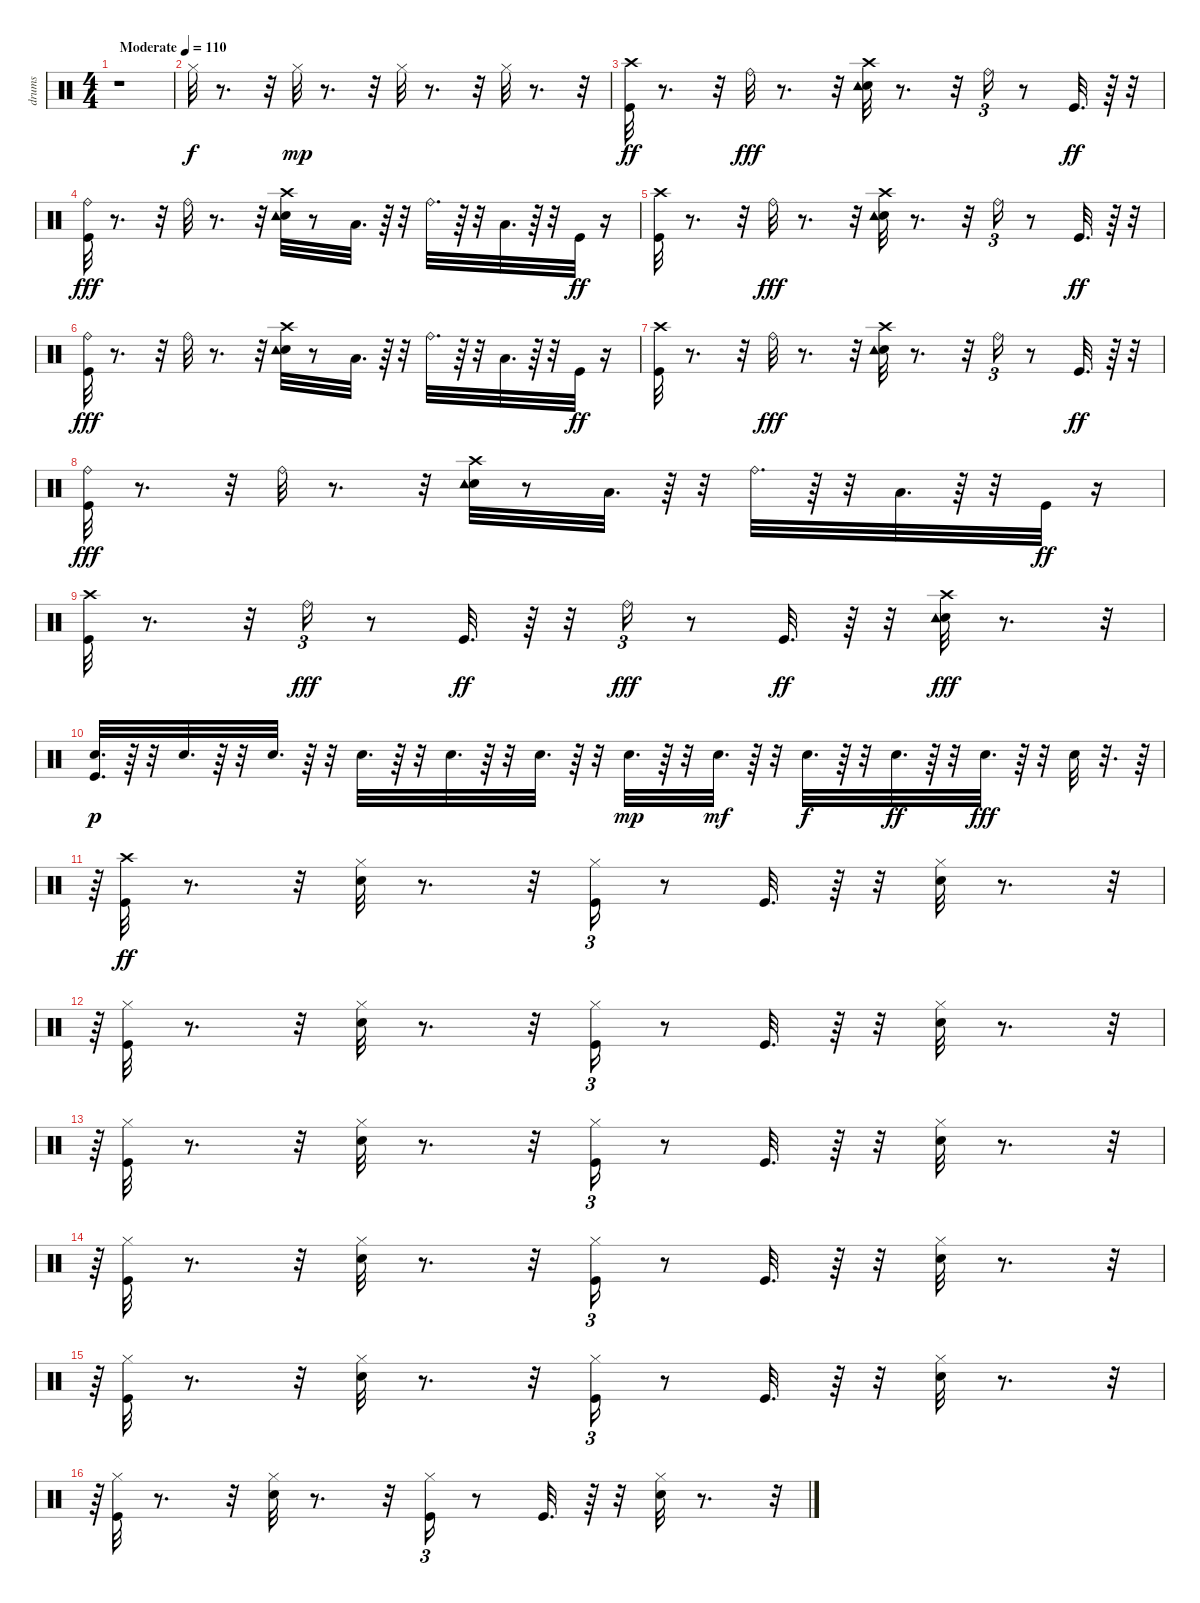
\track ("drums    " "drums    ") {instrument percussion}
\staff {score}
\articulation defaults
\ts (4 4)
\tempo (110 "Moderate")
\clef neutral
\ks c
r.1{dy f} |
"Hi-Hat (closed)".32 r.8{d} r.32 "Hi-Hat (closed)".32{dy mp} r.8{d} r.32 "Hi-Hat (closed)".32 r.8{d} r.32 "Hi-Hat (closed)".32 r.8{d} r.32 |
("Kick (hit)" "Crash high (hit)").32{dy ff} r.8{d} r.32 "Ride (bell)".32{dy fff} r.8{d} r.32 ("Snare (hit) 2" "Crash high (hit)" "Tambourine (hit)").32 r.8{d} r.32 "Ride (bell)".16{tu (3 2)} r.8 "Kick (hit)".32{d dy ff} r.64 r.32 |
("Kick (hit)" "Ride (bell)").32{dy fff} r.8{d} r.32 "Ride (bell)".32 r.8{d} r.32 ("Snare (hit) 2" "Crash high (hit)" "Tambourine (hit)").32 r.8 "Low Tom (hit)".32{d} r.64 r.32 "Ride (bell)".32{d} r.64 r.32 "Low Floor Tom (hit)".32{d} r.64 r.32 "Kick (hit)".32{dy ff} r.16 |
("Kick (hit)" "Crash high (hit)").32 r.8{d} r.32 "Ride (bell)".32{dy fff} r.8{d} r.32 ("Snare (hit) 2" "Crash high (hit)" "Tambourine (hit)").32 r.8{d} r.32 "Ride (bell)".16{tu (3 2)} r.8 "Kick (hit)".32{d dy ff} r.64 r.32 |
("Kick (hit)" "Ride (bell)").32{dy fff} r.8{d} r.32 "Ride (bell)".32 r.8{d} r.32 ("Snare (hit) 2" "Crash high (hit)" "Tambourine (hit)").32 r.8 "Low Tom (hit)".32{d} r.64 r.32 "Ride (bell)".32{d} r.64 r.32 "Low Floor Tom (hit)".32{d} r.64 r.32 "Kick (hit)".32{dy ff} r.16 |
("Kick (hit)" "Crash high (hit)").32 r.8{d} r.32 "Ride (bell)".32{dy fff} r.8{d} r.32 ("Snare (hit) 2" "Crash high (hit)" "Tambourine (hit)").32 r.8{d} r.32 "Ride (bell)".16{tu (3 2)} r.8 "Kick (hit)".32{d dy ff} r.64 r.32 |
("Kick (hit)" "Ride (bell)").32{dy fff} r.8{d} r.32 "Ride (bell)".32 r.8{d} r.32 ("Snare (hit) 2" "Crash high (hit)" "Tambourine (hit)").32 r.8 "Low Tom (hit)".32{d} r.64 r.32 "Ride (bell)".32{d} r.64 r.32 "Low Floor Tom (hit)".32{d} r.64 r.32 "Kick (hit)".32{dy ff} r.16 |
("Crash high (hit)" "Kick (hit)").32 r.8{d} r.32 "Ride (bell)".16{tu (3 2) dy fff} r.8 "Kick (hit)".32{d dy ff} r.64 r.32 "Ride (bell)".16{tu (3 2) dy fff} r.8 "Kick (hit)".32{d dy ff} r.64 r.32 ("Snare (hit) 2" "Crash high (hit)" "Tambourine (hit)").32{dy fff} r.8{d} r.32 |
("Kick (hit)" "Snare (hit) 2").32{d dy p} r.64 r.32 "Snare (hit) 2".32{d} r.64 r.32 "Snare (hit) 2".32{d} r.64 r.32 "Snare (hit) 2".32{d} r.64 r.32 "Snare (hit) 2".32{d} r.64 r.32 "Snare (hit) 2".32{d} r.64 r.32 "Snare (hit) 2".32{d dy mp} r.64 r.32 "Snare (hit) 2".32{d dy mf} r.64 r.32 "Snare (hit) 2".32{d dy f} r.64 r.32 "Snare (hit) 2".32{d dy ff} r.64 r.32 "Snare (hit) 2".32{d dy fff} r.64 r.32 "Snare (hit) 2".32 r.32{d} r.64 |
r.64{tu (3 2)} ("Crash high (hit)" "Kick (hit)").32{dy ff} r.8{d} r.32 ("Snare (hit) 2" "Hi-Hat (closed)").32 r.8{d} r.32 ("Kick (hit)" "Hi-Hat (closed)").16{tu (3 2)} r.8 "Kick (hit)".32{d} r.64 r.32 ("Snare (hit) 2" "Hi-Hat (closed)").32 r.8{d} r.32{tu (3 2)} |
r.64{tu (3 2)} ("Kick (hit)" "Hi-Hat (closed)").32 r.8{d} r.32 ("Snare (hit) 2" "Hi-Hat (closed)").32 r.8{d} r.32 ("Kick (hit)" "Hi-Hat (closed)").16{tu (3 2)} r.8 "Kick (hit)".32{d} r.64 r.32 ("Snare (hit) 2" "Hi-Hat (closed)").32 r.8{d} r.32{tu (3 2)} |
r.64{tu (3 2)} ("Kick (hit)" "Hi-Hat (closed)").32 r.8{d} r.32 ("Snare (hit) 2" "Hi-Hat (closed)").32 r.8{d} r.32 ("Kick (hit)" "Hi-Hat (closed)").16{tu (3 2)} r.8 "Kick (hit)".32{d} r.64 r.32 ("Snare (hit) 2" "Hi-Hat (closed)").32 r.8{d} r.32{tu (3 2)} |
r.64{tu (3 2)} ("Kick (hit)" "Hi-Hat (closed)").32 r.8{d} r.32 ("Snare (hit) 2" "Hi-Hat (closed)").32 r.8{d} r.32 ("Kick (hit)" "Hi-Hat (closed)").16{tu (3 2)} r.8 "Kick (hit)".32{d} r.64 r.32 ("Snare (hit) 2" "Hi-Hat (closed)").32 r.8{d} r.32{tu (3 2)} |
r.64{tu (3 2)} ("Kick (hit)" "Hi-Hat (closed)").32 r.8{d} r.32 ("Snare (hit) 2" "Hi-Hat (closed)").32 r.8{d} r.32 ("Kick (hit)" "Hi-Hat (closed)").16{tu (3 2)} r.8 "Kick (hit)".32{d} r.64 r.32 ("Snare (hit) 2" "Hi-Hat (closed)").32 r.8{d} r.32{tu (3 2)} |
r.64{tu (3 2)} ("Kick (hit)" "Hi-Hat (closed)").32 r.8{d} r.32 ("Snare (hit) 2" "Hi-Hat (closed)").32 r.8{d} r.32 ("Kick (hit)" "Hi-Hat (closed)").16{tu (3 2)} r.8 "Kick (hit)".32{d} r.64 r.32 ("Snare (hit) 2" "Hi-Hat (closed)").32 r.8{d} r.32{tu (3 2)}
